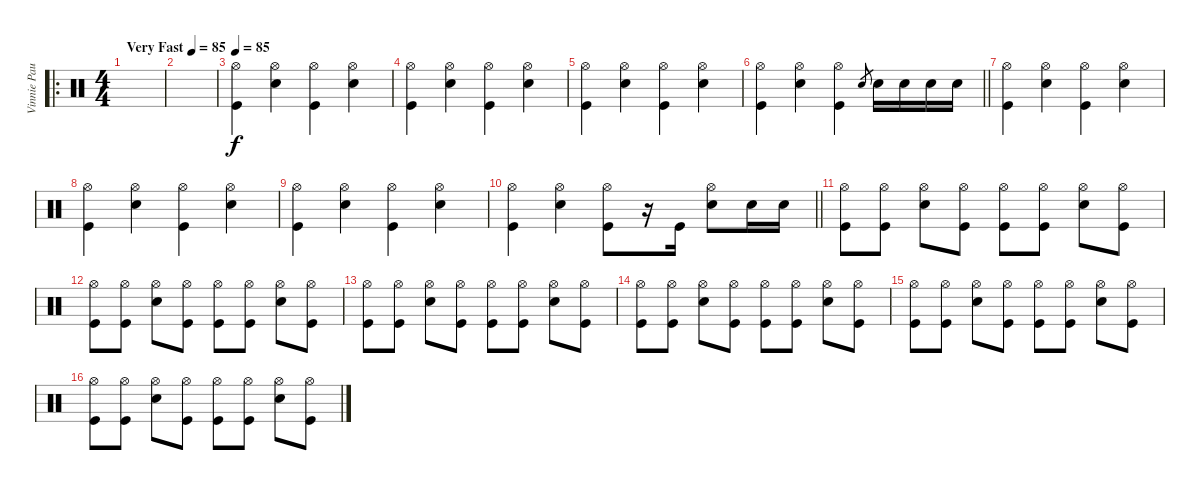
\track ("Vinnie Paul" "Vinnie Pau") {instrument percussion}
\staff {score}
\articulation defaults
\ro
\ts (4 4)
\tempo (85 "Very Fast")
\clef neutral
\ks c
|
|
\tempo 85
("Hi-Hat (open)" "Kick (hit)").4 ("Hi-Hat (open)" "Electric Snare (hit)").4 ("Hi-Hat (open)" "Kick (hit)").4 ("Hi-Hat (open)" "Electric Snare (hit)").4 |
("Hi-Hat (open)" "Kick (hit)").4 ("Hi-Hat (open)" "Electric Snare (hit)").4 ("Hi-Hat (open)" "Kick (hit)").4 ("Hi-Hat (open)" "Electric Snare (hit)").4 |
("Hi-Hat (open)" "Kick (hit)").4 ("Hi-Hat (open)" "Electric Snare (hit)").4 ("Hi-Hat (open)" "Kick (hit)").4 ("Hi-Hat (open)" "Electric Snare (hit)").4 |
\barLineRight lightlight
("Hi-Hat (open)" "Kick (hit)").4 ("Hi-Hat (open)" "Electric Snare (hit)").4 ("Hi-Hat (open)" "Kick (hit)").4 "Electric Snare (hit)".8{gr} "Electric Snare (hit)".16 "Electric Snare (hit)".16 "Electric Snare (hit)".16 "Electric Snare (hit)".16 |
("Hi-Hat (open)" "Kick (hit)").4 ("Hi-Hat (open)" "Electric Snare (hit)").4 ("Hi-Hat (open)" "Kick (hit)").4 ("Hi-Hat (open)" "Electric Snare (hit)").4 |
("Hi-Hat (open)" "Kick (hit)").4 ("Hi-Hat (open)" "Electric Snare (hit)").4 ("Hi-Hat (open)" "Kick (hit)").4 ("Hi-Hat (open)" "Electric Snare (hit)").4 |
("Hi-Hat (open)" "Kick (hit)").4 ("Hi-Hat (open)" "Electric Snare (hit)").4 ("Hi-Hat (open)" "Kick (hit)").4 ("Hi-Hat (open)" "Electric Snare (hit)").4 |
\barLineRight lightlight
("Hi-Hat (open)" "Kick (hit)").4 ("Hi-Hat (open)" "Electric Snare (hit)").4 ("Hi-Hat (open)" "Kick (hit)").8 r.16 "Kick (hit)".16 ("Hi-Hat (open)" "Electric Snare (hit)").8 "Electric Snare (hit)".16 "Electric Snare (hit)".16 |
("Hi-Hat (open)" "Kick (hit)").8 ("Hi-Hat (open)" "Kick (hit)").8 ("Hi-Hat (open)" "Electric Snare (hit)").8 ("Hi-Hat (open)" "Kick (hit)").8 ("Hi-Hat (open)" "Kick (hit)").8 ("Hi-Hat (open)" "Kick (hit)").8 ("Hi-Hat (open)" "Electric Snare (hit)").8 ("Hi-Hat (open)" "Kick (hit)").8 |
("Hi-Hat (open)" "Kick (hit)").8 ("Hi-Hat (open)" "Kick (hit)").8 ("Hi-Hat (open)" "Electric Snare (hit)").8 ("Hi-Hat (open)" "Kick (hit)").8 ("Hi-Hat (open)" "Kick (hit)").8 ("Hi-Hat (open)" "Kick (hit)").8 ("Hi-Hat (open)" "Electric Snare (hit)").8 ("Hi-Hat (open)" "Kick (hit)").8 |
("Hi-Hat (open)" "Kick (hit)").8 ("Hi-Hat (open)" "Kick (hit)").8 ("Hi-Hat (open)" "Electric Snare (hit)").8 ("Hi-Hat (open)" "Kick (hit)").8 ("Hi-Hat (open)" "Kick (hit)").8 ("Hi-Hat (open)" "Kick (hit)").8 ("Hi-Hat (open)" "Electric Snare (hit)").8 ("Hi-Hat (open)" "Kick (hit)").8 |
("Hi-Hat (open)" "Kick (hit)").8 ("Hi-Hat (open)" "Kick (hit)").8 ("Hi-Hat (open)" "Electric Snare (hit)").8 ("Hi-Hat (open)" "Kick (hit)").8 ("Hi-Hat (open)" "Kick (hit)").8 ("Hi-Hat (open)" "Kick (hit)").8 ("Hi-Hat (open)" "Electric Snare (hit)").8 ("Hi-Hat (open)" "Kick (hit)").8 |
("Hi-Hat (open)" "Kick (hit)").8 ("Hi-Hat (open)" "Kick (hit)").8 ("Hi-Hat (open)" "Electric Snare (hit)").8 ("Hi-Hat (open)" "Kick (hit)").8 ("Hi-Hat (open)" "Kick (hit)").8 ("Hi-Hat (open)" "Kick (hit)").8 ("Hi-Hat (open)" "Electric Snare (hit)").8 ("Hi-Hat (open)" "Kick (hit)").8 |
("Hi-Hat (open)" "Kick (hit)").8 ("Hi-Hat (open)" "Kick (hit)").8 ("Hi-Hat (open)" "Electric Snare (hit)").8 ("Hi-Hat (open)" "Kick (hit)").8 ("Hi-Hat (open)" "Kick (hit)").8 ("Hi-Hat (open)" "Kick (hit)").8 ("Hi-Hat (open)" "Electric Snare (hit)").8 ("Hi-Hat (open)" "Kick (hit)").8
